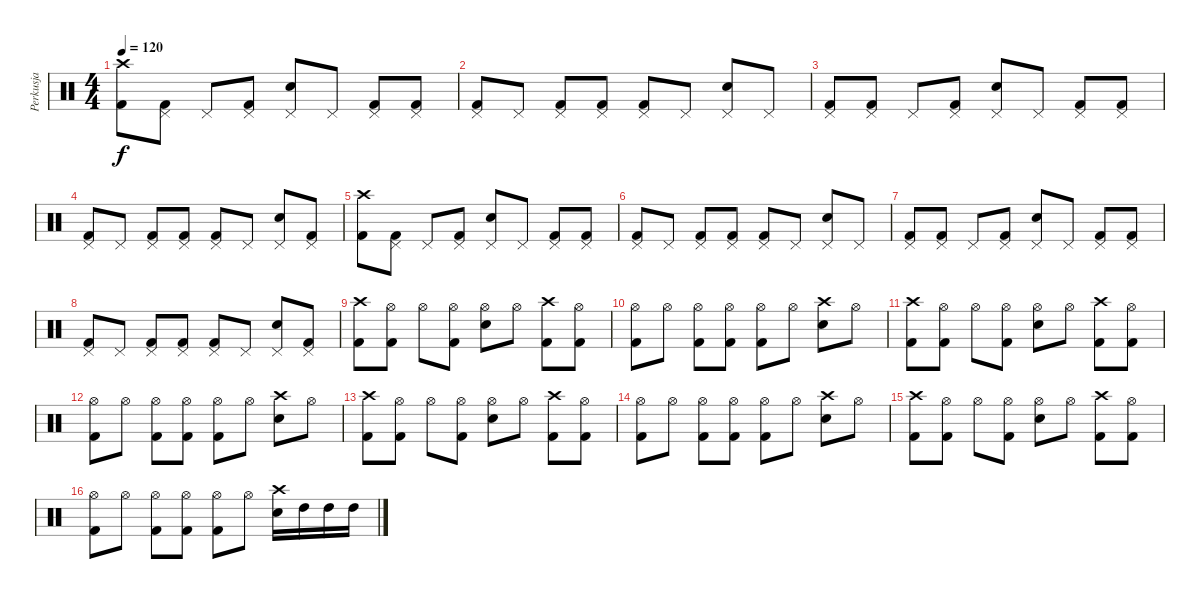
\track ("Perkusja" "Perkusja") {instrument percussion}
\staff {score}
\articulation defaults
\ts (4 4)
\tempo 120
\clef neutral
\ks c
("Crash high (hit)" "Kick (hit) 2").8{dy f} ("Pedal Hi-Hat (hit)" "Kick (hit) 2").8 "Pedal Hi-Hat (hit)".8 ("Pedal Hi-Hat (hit)" "Kick (hit) 2").8 ("Pedal Hi-Hat (hit)" "Electric Snare (hit)").8 "Pedal Hi-Hat (hit)".8 ("Pedal Hi-Hat (hit)" "Kick (hit) 2").8 ("Pedal Hi-Hat (hit)" "Kick (hit) 2").8 |
("Pedal Hi-Hat (hit)" "Kick (hit) 2").8 "Pedal Hi-Hat (hit)".8 ("Pedal Hi-Hat (hit)" "Kick (hit) 2").8 ("Pedal Hi-Hat (hit)" "Kick (hit) 2").8 ("Pedal Hi-Hat (hit)" "Kick (hit) 2").8 "Pedal Hi-Hat (hit)".8 ("Pedal Hi-Hat (hit)" "Electric Snare (hit)").8 "Pedal Hi-Hat (hit)".8 |
("Pedal Hi-Hat (hit)" "Kick (hit) 2").8 ("Pedal Hi-Hat (hit)" "Kick (hit) 2").8 "Pedal Hi-Hat (hit)".8 ("Pedal Hi-Hat (hit)" "Kick (hit) 2").8 ("Pedal Hi-Hat (hit)" "Electric Snare (hit)").8 "Pedal Hi-Hat (hit)".8 ("Pedal Hi-Hat (hit)" "Kick (hit) 2").8 ("Pedal Hi-Hat (hit)" "Kick (hit) 2").8 |
("Pedal Hi-Hat (hit)" "Kick (hit) 2").8 "Pedal Hi-Hat (hit)".8 ("Pedal Hi-Hat (hit)" "Kick (hit) 2").8 ("Pedal Hi-Hat (hit)" "Kick (hit) 2").8 ("Pedal Hi-Hat (hit)" "Kick (hit) 2").8 "Pedal Hi-Hat (hit)".8 ("Pedal Hi-Hat (hit)" "Electric Snare (hit)").8 ("Pedal Hi-Hat (hit)" "Kick (hit) 2").8 |
("Crash high (hit)" "Kick (hit) 2").8 ("Pedal Hi-Hat (hit)" "Kick (hit) 2").8 "Pedal Hi-Hat (hit)".8 ("Pedal Hi-Hat (hit)" "Kick (hit) 2").8 ("Pedal Hi-Hat (hit)" "Electric Snare (hit)").8 "Pedal Hi-Hat (hit)".8 ("Pedal Hi-Hat (hit)" "Kick (hit) 2").8 ("Pedal Hi-Hat (hit)" "Kick (hit) 2").8 |
("Pedal Hi-Hat (hit)" "Kick (hit) 2").8 "Pedal Hi-Hat (hit)".8 ("Pedal Hi-Hat (hit)" "Kick (hit) 2").8 ("Pedal Hi-Hat (hit)" "Kick (hit) 2").8 ("Pedal Hi-Hat (hit)" "Kick (hit) 2").8 "Pedal Hi-Hat (hit)".8 ("Pedal Hi-Hat (hit)" "Electric Snare (hit)").8 "Pedal Hi-Hat (hit)".8 |
("Pedal Hi-Hat (hit)" "Kick (hit) 2").8 ("Pedal Hi-Hat (hit)" "Kick (hit) 2").8 "Pedal Hi-Hat (hit)".8 ("Pedal Hi-Hat (hit)" "Kick (hit) 2").8 ("Pedal Hi-Hat (hit)" "Electric Snare (hit)").8 "Pedal Hi-Hat (hit)".8 ("Pedal Hi-Hat (hit)" "Kick (hit) 2").8 ("Pedal Hi-Hat (hit)" "Kick (hit) 2").8 |
("Pedal Hi-Hat (hit)" "Kick (hit) 2").8 "Pedal Hi-Hat (hit)".8 ("Pedal Hi-Hat (hit)" "Kick (hit) 2").8 ("Pedal Hi-Hat (hit)" "Kick (hit) 2").8 ("Pedal Hi-Hat (hit)" "Kick (hit) 2").8 "Pedal Hi-Hat (hit)".8 ("Pedal Hi-Hat (hit)" "Electric Snare (hit)").8 ("Pedal Hi-Hat (hit)" "Kick (hit) 2").8 |
("Crash high (hit)" "Kick (hit) 2").8 ("Hi-Hat (open)" "Kick (hit) 2").8 "Hi-Hat (open)".8 ("Hi-Hat (open)" "Kick (hit) 2").8 ("Hi-Hat (open)" "Electric Snare (hit)").8 "Hi-Hat (open)".8 ("Crash high (hit)" "Kick (hit) 2").8 ("Hi-Hat (open)" "Kick (hit) 2").8 |
("Hi-Hat (open)" "Kick (hit) 2").8 "Hi-Hat (open)".8 ("Hi-Hat (open)" "Kick (hit) 2").8 ("Hi-Hat (open)" "Kick (hit) 2").8 ("Hi-Hat (open)" "Kick (hit) 2").8 "Hi-Hat (open)".8 ("Crash high (hit)" "Electric Snare (hit)").8 "Hi-Hat (open)".8 |
("Crash high (hit)" "Kick (hit) 2").8 ("Hi-Hat (open)" "Kick (hit) 2").8 "Hi-Hat (open)".8 ("Hi-Hat (open)" "Kick (hit) 2").8 ("Hi-Hat (open)" "Electric Snare (hit)").8 "Hi-Hat (open)".8 ("Crash high (hit)" "Kick (hit) 2").8 ("Hi-Hat (open)" "Kick (hit) 2").8 |
("Hi-Hat (open)" "Kick (hit) 2").8 "Hi-Hat (open)".8 ("Hi-Hat (open)" "Kick (hit) 2").8 ("Hi-Hat (open)" "Kick (hit) 2").8 ("Hi-Hat (open)" "Kick (hit) 2").8 "Hi-Hat (open)".8 ("Crash high (hit)" "Electric Snare (hit)").8 "Hi-Hat (open)".8 |
("Crash high (hit)" "Kick (hit) 2").8 ("Hi-Hat (open)" "Kick (hit) 2").8 "Hi-Hat (open)".8 ("Hi-Hat (open)" "Kick (hit) 2").8 ("Hi-Hat (open)" "Electric Snare (hit)").8 "Hi-Hat (open)".8 ("Crash high (hit)" "Kick (hit) 2").8 ("Hi-Hat (open)" "Kick (hit) 2").8 |
("Hi-Hat (open)" "Kick (hit) 2").8 "Hi-Hat (open)".8 ("Hi-Hat (open)" "Kick (hit) 2").8 ("Hi-Hat (open)" "Kick (hit) 2").8 ("Hi-Hat (open)" "Kick (hit) 2").8 "Hi-Hat (open)".8 ("Crash high (hit)" "Electric Snare (hit)").8 "Hi-Hat (open)".8 |
("Crash high (hit)" "Kick (hit) 2").8 ("Hi-Hat (open)" "Kick (hit) 2").8 "Hi-Hat (open)".8 ("Hi-Hat (open)" "Kick (hit) 2").8 ("Hi-Hat (open)" "Electric Snare (hit)").8 "Hi-Hat (open)".8 ("Crash high (hit)" "Kick (hit) 2").8 ("Hi-Hat (open)" "Kick (hit) 2").8 |
("Hi-Hat (open)" "Kick (hit) 2").8 "Hi-Hat (open)".8 ("Hi-Hat (open)" "Kick (hit) 2").8 ("Hi-Hat (open)" "Kick (hit) 2").8 ("Hi-Hat (open)" "Kick (hit) 2").8 "Hi-Hat (open)".8 ("Crash high (hit)" "Electric Snare (hit)").16 "High Tom (hit)".16 "High Tom (hit)".16 "High Tom (hit)".16
